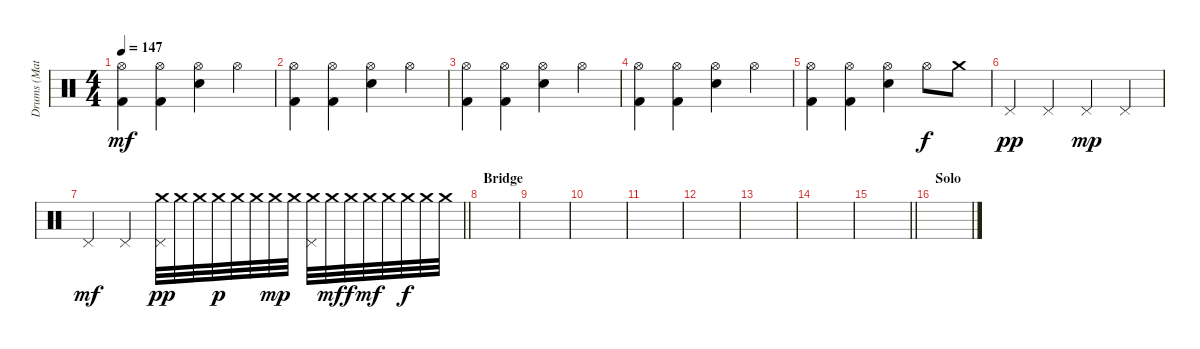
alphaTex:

\track ("Drums (Matt Laug)" "Drums (Mat") {instrument percussion}
\staff {score}
\articulation defaults
\ts (4 4)
\tempo 147
\clef neutral
\ks c
("Hi-Hat (open)" "Kick (hit) 2").4{dy mf} ("Hi-Hat (open)" "Kick (hit) 2").4 ("Hi-Hat (open)" "Electric Snare (hit)").4 "Hi-Hat (open)".4 |
("Hi-Hat (open)" "Kick (hit) 2").4 ("Hi-Hat (open)" "Kick (hit) 2").4 ("Hi-Hat (open)" "Electric Snare (hit)").4 "Hi-Hat (open)".4 |
("Hi-Hat (open)" "Kick (hit) 2").4 ("Hi-Hat (open)" "Kick (hit) 2").4 ("Hi-Hat (open)" "Electric Snare (hit)").4 "Hi-Hat (open)".4 |
("Hi-Hat (open)" "Kick (hit) 2").4 ("Hi-Hat (open)" "Kick (hit) 2").4 ("Hi-Hat (open)" "Electric Snare (hit)").4 "Hi-Hat (open)".4 |
("Hi-Hat (open)" "Kick (hit) 2").4 ("Hi-Hat (open)" "Kick (hit) 2").4 ("Hi-Hat (open)" "Electric Snare (hit)").4 "Hi-Hat (open)".8{dy f} "Crash medium (hit)".8 |
"Pedal Hi-Hat (hit)".4{dy pp} "Pedal Hi-Hat (hit)".4 "Pedal Hi-Hat (hit)".4{dy mp} "Pedal Hi-Hat (hit)".4 |
\barLineRight lightlight "Pedal Hi-Hat (hit)".4{dy mf} "Pedal Hi-Hat (hit)".4
("Pedal Hi-Hat (hit)" "Crash medium (hit)").32{dy pp} "Crash medium (hit)".32 "Crash medium (hit)".32 "Crash medium (hit)".32{dy p} "Crash medium (hit)".32 "Crash medium (hit)".32 "Crash medium (hit)".32{dy mp} "Crash medium (hit)".32 ("Pedal Hi-Hat (hit)" "Crash medium (hit)").32 "Crash medium (hit)".32{dy mf} "Crash medium (hit)".32{dy f} "Crash medium (hit)".32{dy mf} "Crash medium (hit)".32 "Crash medium (hit)".32{dy f} "Crash medium (hit)".32 "Crash medium (hit)".32 |
\section ("" "Bridge")
|
|
|
|
|
|
|
\barLineRight lightlight
|
\section ("" "Solo")
